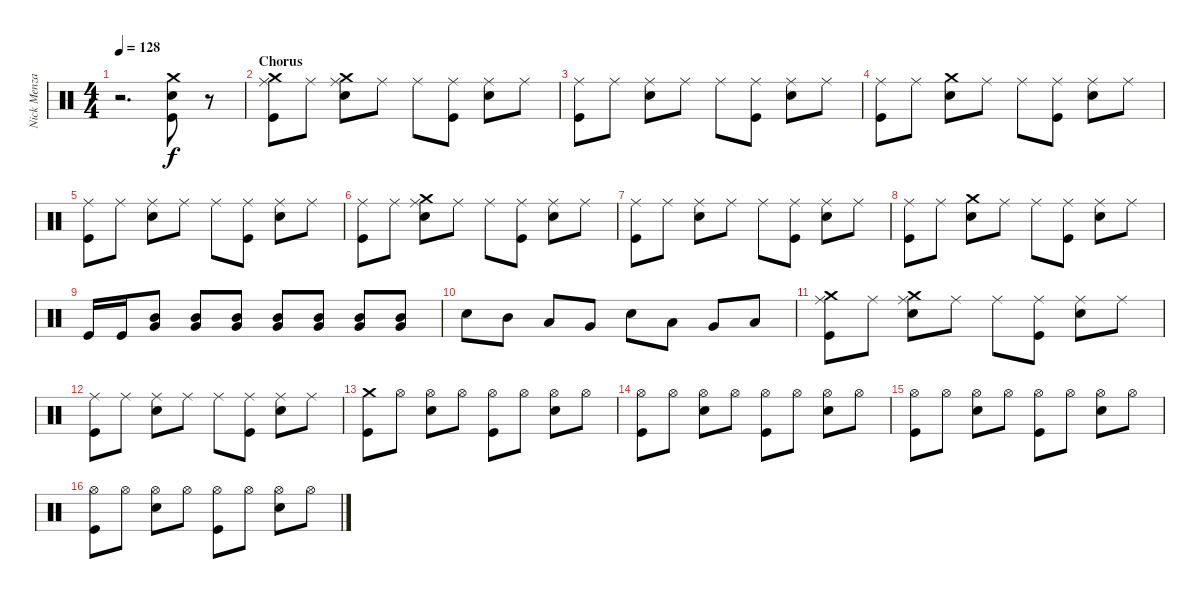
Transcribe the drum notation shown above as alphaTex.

\track ("Nick Menza" "Nick Menza") {instrument percussion}
\staff {score}
\articulation defaults
\ts (4 4)
\tempo 128
\clef neutral
\ks c
r.2{d dy f} ("Kick (hit)" "Electric Snare (hit)" "Crash medium (hit)").8 r.8 |
\section ("" "Chorus")
("Crash medium (hit)" "Ride (middle)" "Kick (hit)").8 "Ride (middle)".8 ("Crash medium (hit)" "Ride (middle)" "Electric Snare (hit)").8 "Ride (middle)".8 "Ride (middle)".8 ("Kick (hit)" "Ride (middle)").8 ("Ride (middle)" "Electric Snare (hit)").8 "Ride (middle)".8 |
("Ride (middle)" "Kick (hit)").8 "Ride (middle)".8 ("Electric Snare (hit)" "Ride (middle)").8 "Ride (middle)".8 "Ride (middle)".8 ("Kick (hit)" "Ride (middle)").8 ("Ride (middle)" "Electric Snare (hit)").8 "Ride (middle)".8 |
("Ride (middle)" "Kick (hit)").8 "Ride (middle)".8 ("Crash medium (hit)" "Electric Snare (hit)").8 "Ride (middle)".8 "Ride (middle)".8 ("Kick (hit)" "Ride (middle)").8 ("Ride (middle)" "Electric Snare (hit)").8 "Ride (middle)".8 |
("Ride (middle)" "Kick (hit)").8 "Ride (middle)".8 ("Electric Snare (hit)" "Ride (middle)").8 "Ride (middle)".8 "Ride (middle)".8 ("Kick (hit)" "Ride (middle)").8 ("Ride (middle)" "Electric Snare (hit)").8 "Ride (middle)".8 |
("Ride (middle)" "Kick (hit)").8 "Ride (middle)".8 ("Crash medium (hit)" "Ride (middle)" "Electric Snare (hit)").8 "Ride (middle)".8 "Ride (middle)".8 ("Kick (hit)" "Ride (middle)").8 ("Ride (middle)" "Electric Snare (hit)").8 "Ride (middle)".8 |
("Ride (middle)" "Kick (hit)").8 "Ride (middle)".8 ("Electric Snare (hit)" "Ride (middle)").8 "Ride (middle)".8 "Ride (middle)".8 ("Kick (hit)" "Ride (middle)").8 ("Ride (middle)" "Electric Snare (hit)").8 "Ride (middle)".8 |
("Ride (middle)" "Kick (hit)").8 "Ride (middle)".8 ("Crash medium (hit)" "Electric Snare (hit)").8 "Ride (middle)".8 "Ride (middle)".8 ("Kick (hit)" "Ride (middle)").8 ("Ride (middle)" "Electric Snare (hit)").8 "Ride (middle)".8 |
"Kick (hit)".16 "Kick (hit)".16 ("Mid Tom (hit)" "Very Low Tom (hit)").8 ("Mid Tom (hit)" "Very Low Tom (hit)").8 ("Mid Tom (hit)" "Very Low Tom (hit)").8 ("Mid Tom (hit)" "Very Low Tom (hit)").8 ("Mid Tom (hit)" "Very Low Tom (hit)").8 ("Mid Tom (hit)" "Very Low Tom (hit)").8 ("Mid Tom (hit)" "Very Low Tom (hit)").8 |
"Electric Snare (hit)".8 "Mid Tom (hit)".8 "Low Tom (hit)".8 "Very Low Tom (hit)".8 "Electric Snare (hit)".8 "Low Tom (hit)".8 "Very Low Tom (hit)".8 "Low Floor Tom (hit)".8 |
("Crash medium (hit)" "Ride (middle)" "Kick (hit)").8 "Ride (middle)".8 ("Crash medium (hit)" "Ride (middle)" "Electric Snare (hit)").8 "Ride (middle)".8 "Ride (middle)".8 ("Kick (hit)" "Ride (middle)").8 ("Ride (middle)" "Electric Snare (hit)").8 "Ride (middle)".8 |
("Ride (middle)" "Kick (hit)").8 "Ride (middle)".8 ("Electric Snare (hit)" "Ride (middle)").8 "Ride (middle)".8 "Ride (middle)".8 ("Kick (hit)" "Ride (middle)").8 ("Ride (middle)" "Electric Snare (hit)").8 "Ride (middle)".8 |
("Crash medium (hit)" "Kick (hit)").8 "Hi-Hat (open)".8 ("Hi-Hat (open)" "Electric Snare (hit)").8 "Hi-Hat (open)".8 ("Hi-Hat (open)" "Kick (hit)").8 "Hi-Hat (open)".8 ("Hi-Hat (open)" "Electric Snare (hit)").8 "Hi-Hat (open)".8 |
("Hi-Hat (open)" "Kick (hit)").8 "Hi-Hat (open)".8 ("Hi-Hat (open)" "Electric Snare (hit)").8 "Hi-Hat (open)".8 ("Hi-Hat (open)" "Kick (hit)").8 "Hi-Hat (open)".8 ("Hi-Hat (open)" "Electric Snare (hit)").8 "Hi-Hat (open)".8 |
("Hi-Hat (open)" "Kick (hit)").8 "Hi-Hat (open)".8 ("Hi-Hat (open)" "Electric Snare (hit)").8 "Hi-Hat (open)".8 ("Hi-Hat (open)" "Kick (hit)").8 "Hi-Hat (open)".8 ("Hi-Hat (open)" "Electric Snare (hit)").8 "Hi-Hat (open)".8 |
("Hi-Hat (open)" "Kick (hit)").8 "Hi-Hat (open)".8 ("Hi-Hat (open)" "Electric Snare (hit)").8 "Hi-Hat (open)".8 ("Hi-Hat (open)" "Kick (hit)").8 "Hi-Hat (open)".8 ("Hi-Hat (open)" "Electric Snare (hit)").8 "Hi-Hat (open)".8
